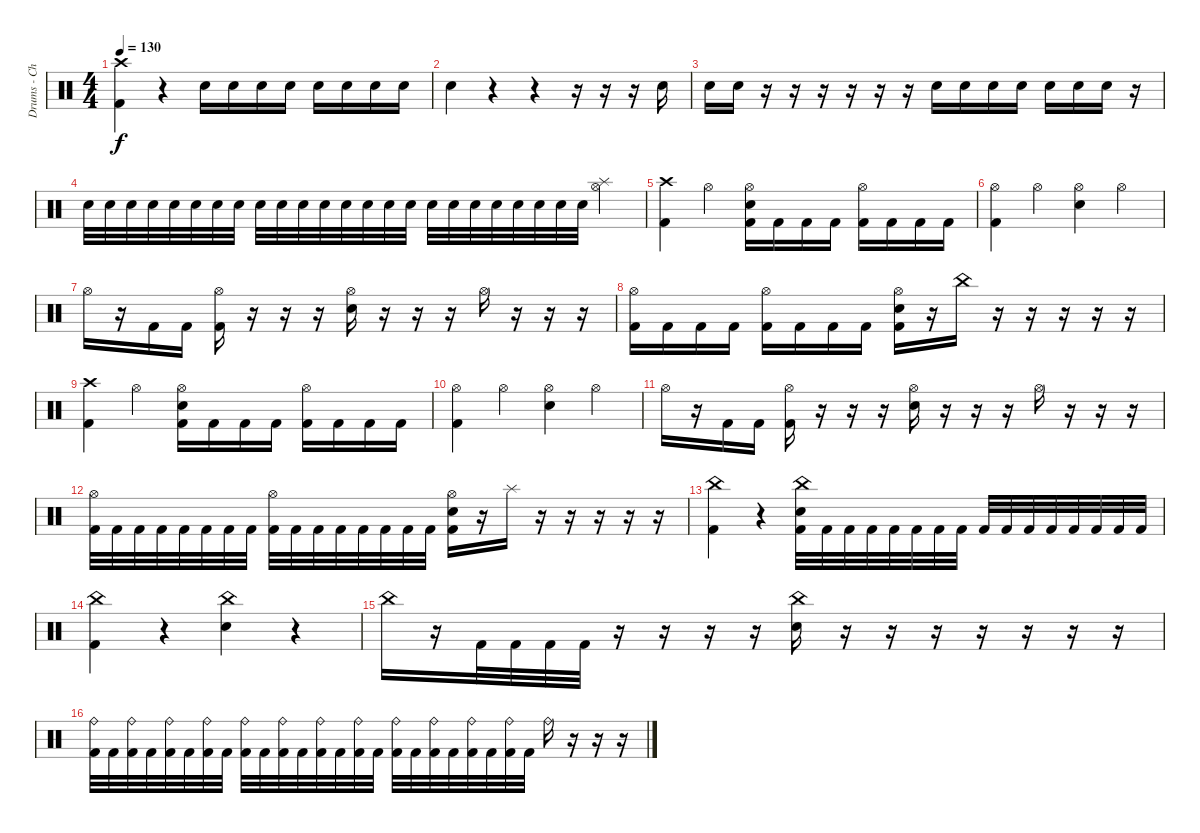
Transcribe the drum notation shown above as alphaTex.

\track ("Drums - Chevelle Spiteri" "Drums - Ch") {instrument percussion}
\staff {score}
\articulation defaults
\ts (4 4)
\tempo 130
\clef neutral
\ks c
("Crash high (hit)" "Kick (hit) 2").4{dy f} r.4 "Snare (hit) 2".16 "Snare (hit) 2".16 "Snare (hit) 2".16 "Snare (hit) 2".16 "Snare (hit) 2".16 "Snare (hit) 2".16 "Snare (hit) 2".16 "Snare (hit) 2".16 |
"Snare (hit) 2".4 r.4 r.4 r.16 r.16 r.16 "Snare (hit) 2".16 |
"Snare (hit) 2".16 "Snare (hit) 2".16 r.16 r.16 r.16 r.16 r.16 r.16 "Snare (hit) 2".16 "Snare (hit) 2".16 "Snare (hit) 2".16 "Snare (hit) 2".16 "Snare (hit) 2".16 "Snare (hit) 2".16 "Snare (hit) 2".16 r.16 |
"Snare (hit) 2".32 "Snare (hit) 2".32 "Snare (hit) 2".32 "Snare (hit) 2".32 "Snare (hit) 2".32 "Snare (hit) 2".32 "Snare (hit) 2".32 "Snare (hit) 2".32 "Snare (hit) 2".32 "Snare (hit) 2".32 "Snare (hit) 2".32 "Snare (hit) 2".32 "Snare (hit) 2".32 "Snare (hit) 2".32 "Snare (hit) 2".32 "Snare (hit) 2".32 "Snare (hit) 2".32 "Snare (hit) 2".32 "Snare (hit) 2".32 "Snare (hit) 2".32 "Snare (hit) 2".32 "Snare (hit) 2".32 "Snare (hit) 2".32 "Snare (hit) 2".32 ("Splash (hit)" "Hi-Hat (open)").4 |
("Crash high (hit)" "Kick (hit) 2").4 "Hi-Hat (open)".4 ("Snare (hit) 2" "Hi-Hat (open)" "Kick (hit) 2").16 "Kick (hit) 2".16 "Kick (hit) 2".16 "Kick (hit) 2".16 ("Hi-Hat (open)" "Kick (hit) 2").16 "Kick (hit) 2".16 "Kick (hit) 2".16 "Kick (hit) 2".16 |
("Hi-Hat (open)" "Kick (hit) 2").4 "Hi-Hat (open)".4 ("Hi-Hat (open)" "Snare (hit) 2").4 "Hi-Hat (open)".4 |
"Hi-Hat (open)".16 r.16 "Kick (hit) 2".16 "Kick (hit) 2".16 ("Hi-Hat (open)" "Kick (hit) 2").16 r.16 r.16 r.16 ("Hi-Hat (open)" "Snare (hit) 2").16 r.16 r.16 r.16 "Hi-Hat (open)".16 r.16 r.16 r.16 |
("Hi-Hat (open)" "Kick (hit) 2").16 "Kick (hit) 2".16 "Kick (hit) 2".16 "Kick (hit) 2".16 ("Hi-Hat (open)" "Kick (hit) 2").16 "Kick (hit) 2".16 "Kick (hit) 2".16 "Kick (hit) 2".16 ("Hi-Hat (open)" "Kick (hit) 2" "Snare (hit) 2").16 r.16 "China (hit)".16 r.16 r.16 r.16 r.16 r.16 |
("Crash high (hit)" "Kick (hit) 2").4 "Hi-Hat (open)".4 ("Snare (hit) 2" "Hi-Hat (open)" "Kick (hit) 2").16 "Kick (hit) 2".16 "Kick (hit) 2".16 "Kick (hit) 2".16 ("Hi-Hat (open)" "Kick (hit) 2").16 "Kick (hit) 2".16 "Kick (hit) 2".16 "Kick (hit) 2".16 |
("Hi-Hat (open)" "Kick (hit) 2").4 "Hi-Hat (open)".4 ("Hi-Hat (open)" "Snare (hit) 2").4 "Hi-Hat (open)".4 |
"Hi-Hat (open)".16 r.16 "Kick (hit) 2".16 "Kick (hit) 2".16 ("Hi-Hat (open)" "Kick (hit) 2").16 r.16 r.16 r.16 ("Hi-Hat (open)" "Snare (hit) 2").16 r.16 r.16 r.16 "Hi-Hat (open)".16 r.16 r.16 r.16 |
("Hi-Hat (open)" "Kick (hit) 2").32 "Kick (hit) 2".32 "Kick (hit) 2".32 "Kick (hit) 2".32 "Kick (hit) 2".32 "Kick (hit) 2".32 "Kick (hit) 2".32 "Kick (hit) 2".32 ("Hi-Hat (open)" "Kick (hit) 2").32 "Kick (hit) 2".32 "Kick (hit) 2".32 "Kick (hit) 2".32 "Kick (hit) 2".32 "Kick (hit) 2".32 "Kick (hit) 2".32 "Kick (hit) 2".32 ("Hi-Hat (open)" "Kick (hit) 2" "Snare (hit) 2").16 r.16 "Splash (hit)".16 r.16 r.16 r.16 r.16 r.16 |
("China (hit)" "Kick (hit) 2").4 r.4 ("Snare (hit) 2" "China (hit)" "Kick (hit) 2").32 "Kick (hit) 2".32 "Kick (hit) 2".32 "Kick (hit) 2".32 "Kick (hit) 2".32 "Kick (hit) 2".32 "Kick (hit) 2".32 "Kick (hit) 2".32 "Kick (hit) 2".32 "Kick (hit) 2".32 "Kick (hit) 2".32 "Kick (hit) 2".32 "Kick (hit) 2".32 "Kick (hit) 2".32 "Kick (hit) 2".32 "Kick (hit) 2".32 |
("China (hit)" "Kick (hit) 2").4 r.4 ("China (hit)" "Snare (hit) 2").4 r.4 |
"China (hit)".16 r.16 "Kick (hit) 2".32 "Kick (hit) 2".32 "Kick (hit) 2".32 "Kick (hit) 2".32 r.16 r.16 r.16 r.16 ("China (hit)" "Snare (hit) 2").16 r.16 r.16 r.16 r.16 r.16 r.16 r.16 |
("Ride (bell)" "Kick (hit) 2").32 "Kick (hit) 2".32 ("Ride (bell)" "Kick (hit) 2").32 "Kick (hit) 2".32 ("Ride (bell)" "Kick (hit) 2").32 "Kick (hit) 2".32 ("Ride (bell)" "Kick (hit) 2").32 "Kick (hit) 2".32 ("Ride (bell)" "Kick (hit) 2").32 "Kick (hit) 2".32 ("Ride (bell)" "Kick (hit) 2").32 "Kick (hit) 2".32 ("Ride (bell)" "Kick (hit) 2").32 "Kick (hit) 2".32 ("Ride (bell)" "Kick (hit) 2").32 "Kick (hit) 2".32 ("Ride (bell)" "Kick (hit) 2").32 "Kick (hit) 2".32 ("Ride (bell)" "Kick (hit) 2").32 "Kick (hit) 2".32 ("Ride (bell)" "Kick (hit) 2").32 "Kick (hit) 2".32 ("Ride (bell)" "Kick (hit) 2").32 "Kick (hit) 2".32 "Ride (bell)".16 r.16 r.16 r.16
